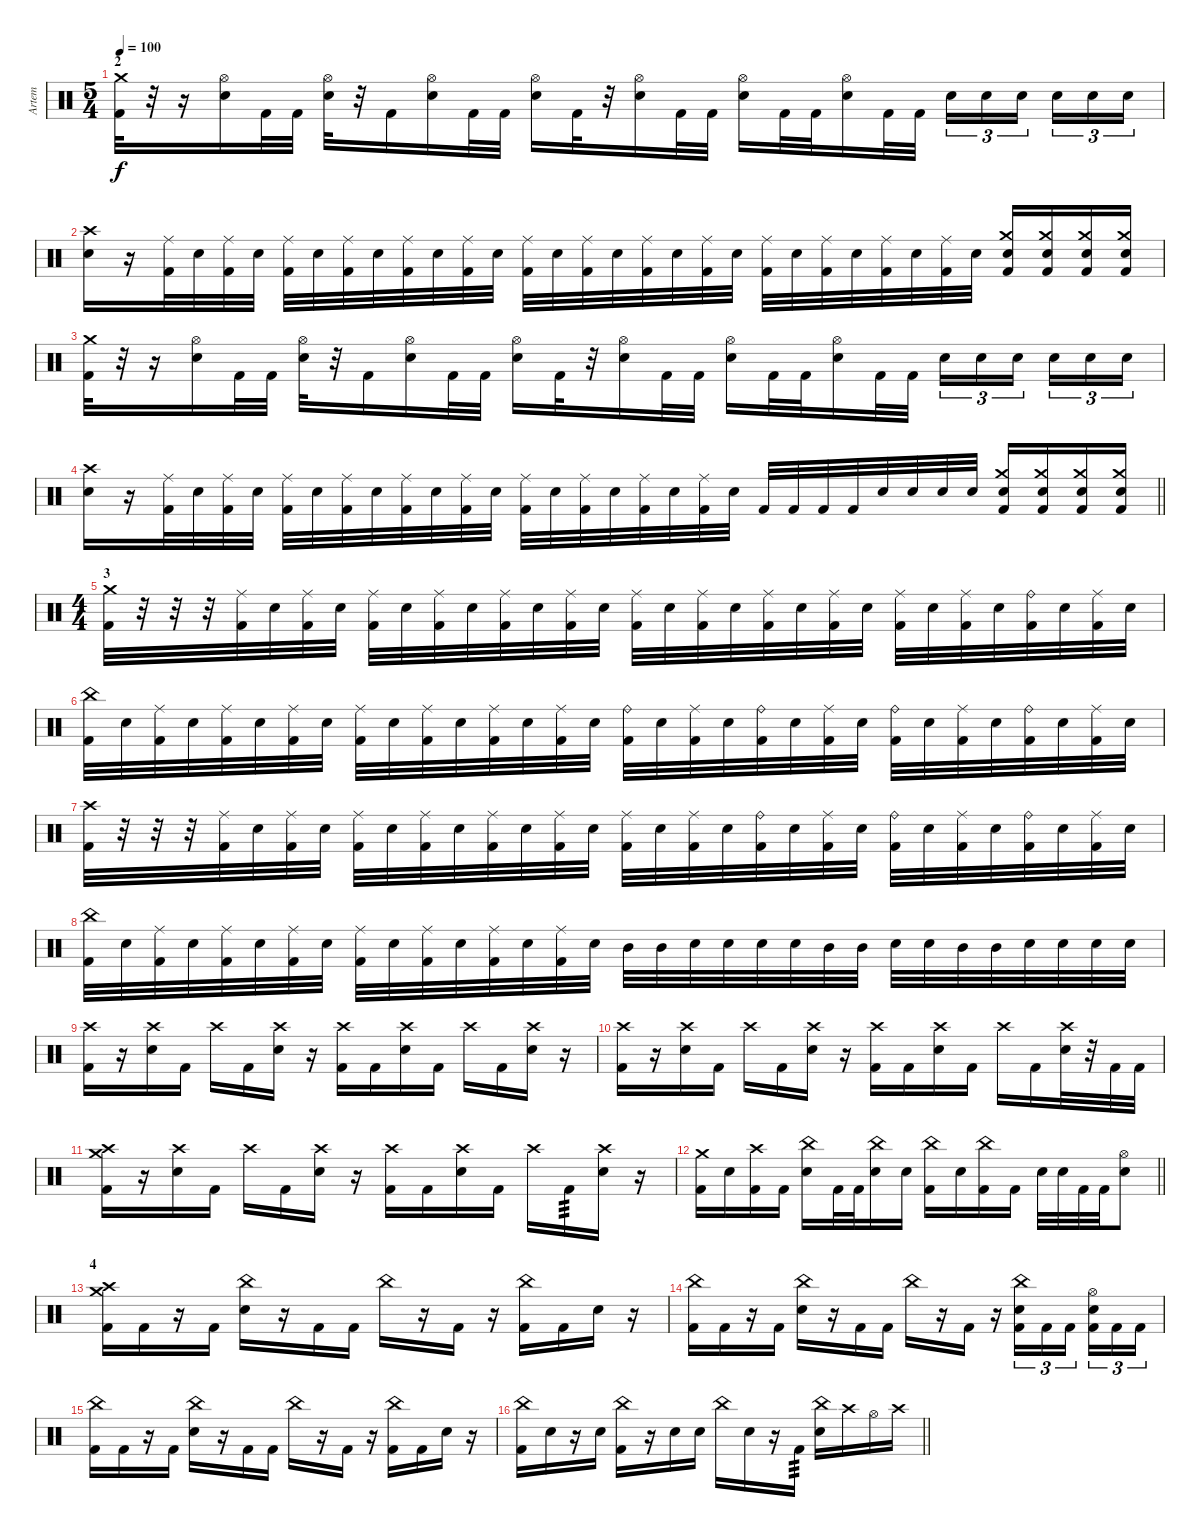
\track ("Artem" "Artem") {instrument percussion}
\staff {score}
\articulation defaults
\ts (5 4)
\section ("" "2")
\tempo 100
\clef neutral
\ks c
("Kick (hit) 2" "Crash medium (hit)").32{dy f} r.32 r.16 ("Electric Snare (hit)" "Hi-Hat (open)").16 "Kick (hit) 2".32 "Kick (hit) 2".32 ("Electric Snare (hit)" "Hi-Hat (open)").32 r.32 "Kick (hit) 2".16 ("Electric Snare (hit)" "Hi-Hat (open)").16 "Kick (hit) 2".32 "Kick (hit) 2".32 ("Electric Snare (hit)" "Hi-Hat (open)").16 "Kick (hit) 2".32 r.32 ("Electric Snare (hit)" "Hi-Hat (open)").16 "Kick (hit) 2".32 "Kick (hit) 2".32 ("Electric Snare (hit)" "Hi-Hat (open)").16 "Kick (hit) 2".32 "Kick (hit) 2".32 ("Electric Snare (hit)" "Hi-Hat (open)").16 "Kick (hit) 2".32 "Kick (hit) 2".32 "Snare (hit) 2".16{tu (3 2)} "Snare (hit) 2".16{tu (3 2)} "Snare (hit) 2".16{tu (3 2) beam splitsecondary} "Snare (hit) 2".16{tu (3 2)} "Snare (hit) 2".16{tu (3 2)} "Snare (hit) 2".16{tu (3 2)} |
("Electric Snare (hit)" "Crash high (hit)").16 r.16 ("Ride (middle)" "Kick (hit) 2").32 "Electric Snare (hit)".32 ("Ride (middle)" "Kick (hit) 2").32 "Electric Snare (hit)".32 ("Ride (middle)" "Kick (hit) 2").32 "Electric Snare (hit)".32 ("Ride (middle)" "Kick (hit) 2").32 "Electric Snare (hit)".32 ("Ride (middle)" "Kick (hit) 2").32 "Electric Snare (hit)".32 ("Ride (middle)" "Kick (hit) 2").32 "Electric Snare (hit)".32 ("Ride (middle)" "Kick (hit) 2").32 "Electric Snare (hit)".32 ("Ride (middle)" "Kick (hit) 2").32 "Electric Snare (hit)".32 ("Ride (middle)" "Kick (hit) 2").32 "Electric Snare (hit)".32 ("Ride (middle)" "Kick (hit) 2").32 "Electric Snare (hit)".32 ("Ride (middle)" "Kick (hit) 2").32 "Electric Snare (hit)".32 ("Ride (middle)" "Kick (hit) 2").32 "Electric Snare (hit)".32 ("Ride (middle)" "Kick (hit) 2").32 "Electric Snare (hit)".32 ("Ride (middle)" "Kick (hit) 2").32 "Electric Snare (hit)".32 ("Crash medium (hit)" "Electric Snare (hit)" "Kick (hit) 2").16 ("Crash medium (hit)" "Electric Snare (hit)" "Kick (hit) 2").16 ("Crash medium (hit)" "Electric Snare (hit)" "Kick (hit) 2").16 ("Crash medium (hit)" "Electric Snare (hit)" "Kick (hit) 2").16 |
("Kick (hit) 2" "Crash medium (hit)").32 r.32 r.16 ("Electric Snare (hit)" "Hi-Hat (open)").16 "Kick (hit) 2".32 "Kick (hit) 2".32 ("Electric Snare (hit)" "Hi-Hat (open)").32 r.32 "Kick (hit) 2".16 ("Electric Snare (hit)" "Hi-Hat (open)").16 "Kick (hit) 2".32 "Kick (hit) 2".32 ("Electric Snare (hit)" "Hi-Hat (open)").16 "Kick (hit) 2".32 r.32 ("Electric Snare (hit)" "Hi-Hat (open)").16 "Kick (hit) 2".32 "Kick (hit) 2".32 ("Electric Snare (hit)" "Hi-Hat (open)").16 "Kick (hit) 2".32 "Kick (hit) 2".32 ("Electric Snare (hit)" "Hi-Hat (open)").16 "Kick (hit) 2".32 "Kick (hit) 2".32 "Snare (hit) 2".16{tu (3 2)} "Snare (hit) 2".16{tu (3 2)} "Snare (hit) 2".16{tu (3 2) beam splitsecondary} "Snare (hit) 2".16{tu (3 2)} "Snare (hit) 2".16{tu (3 2)} "Snare (hit) 2".16{tu (3 2)} |
\barLineRight lightlight
("Electric Snare (hit)" "Crash high (hit)").16 r.16 ("Ride (middle)" "Kick (hit) 2").32 "Electric Snare (hit)".32 ("Ride (middle)" "Kick (hit) 2").32 "Electric Snare (hit)".32 ("Ride (middle)" "Kick (hit) 2").32 "Electric Snare (hit)".32 ("Ride (middle)" "Kick (hit) 2").32 "Electric Snare (hit)".32 ("Ride (middle)" "Kick (hit) 2").32 "Electric Snare (hit)".32 ("Ride (middle)" "Kick (hit) 2").32 "Electric Snare (hit)".32 ("Ride (middle)" "Kick (hit) 2").32 "Electric Snare (hit)".32 ("Ride (middle)" "Kick (hit) 2").32 "Electric Snare (hit)".32 ("Ride (middle)" "Kick (hit) 2").32 "Electric Snare (hit)".32 ("Ride (middle)" "Kick (hit) 2").32 "Electric Snare (hit)".32 "Kick (hit) 2".32 "Kick (hit) 2".32 "Kick (hit) 2".32 "Kick (hit) 2".32 "Electric Snare (hit)".32 "Electric Snare (hit)".32 "Electric Snare (hit)".32 "Electric Snare (hit)".32 ("Crash medium (hit)" "Electric Snare (hit)" "Kick (hit) 2").16 ("Crash medium (hit)" "Electric Snare (hit)" "Kick (hit) 2").16 ("Crash medium (hit)" "Electric Snare (hit)" "Kick (hit) 2").16 ("Crash medium (hit)" "Electric Snare (hit)" "Kick (hit) 2").16 |
\ts (4 4)
\section ("" "3")
("Crash medium (hit)" "Kick (hit) 2").32 r.32 r.32 r.32 ("Ride (middle)" "Kick (hit) 2").32 "Snare (hit) 2".32 ("Ride (middle)" "Kick (hit) 2").32 "Snare (hit) 2".32 ("Ride (middle)" "Kick (hit) 2").32 "Snare (hit) 2".32 ("Ride (middle)" "Kick (hit) 2").32 "Snare (hit) 2".32 ("Ride (middle)" "Kick (hit) 2").32 "Snare (hit) 2".32 ("Ride (middle)" "Kick (hit) 2").32 "Snare (hit) 2".32 ("Ride (middle)" "Kick (hit) 2").32 "Snare (hit) 2".32 ("Ride (middle)" "Kick (hit) 2").32 "Snare (hit) 2".32 ("Ride (middle)" "Kick (hit) 2").32 "Snare (hit) 2".32 ("Ride (middle)" "Kick (hit) 2").32 "Snare (hit) 2".32 ("Ride (middle)" "Kick (hit) 2").32 "Snare (hit) 2".32 ("Ride (middle)" "Kick (hit) 2").32 "Snare (hit) 2".32 ("Ride (bell)" "Kick (hit) 2").32 "Snare (hit) 2".32 ("Ride (middle)" "Kick (hit) 2").32 "Snare (hit) 2".32 |
("China (hit)" "Kick (hit) 2").32 "Snare (hit) 2".32 ("Ride (middle)" "Kick (hit) 2").32 "Snare (hit) 2".32 ("Ride (middle)" "Kick (hit) 2").32 "Snare (hit) 2".32 ("Ride (middle)" "Kick (hit) 2").32 "Snare (hit) 2".32 ("Ride (middle)" "Kick (hit) 2").32 "Snare (hit) 2".32 ("Ride (middle)" "Kick (hit) 2").32 "Snare (hit) 2".32 ("Ride (middle)" "Kick (hit) 2").32 "Snare (hit) 2".32 ("Ride (middle)" "Kick (hit) 2").32 "Snare (hit) 2".32 ("Ride (bell)" "Kick (hit) 2").32 "Snare (hit) 2".32 ("Ride (middle)" "Kick (hit) 2").32 "Snare (hit) 2".32 ("Ride (bell)" "Kick (hit) 2").32 "Snare (hit) 2".32 ("Ride (middle)" "Kick (hit) 2").32 "Snare (hit) 2".32 ("Ride (bell)" "Kick (hit) 2").32 "Snare (hit) 2".32 ("Ride (middle)" "Kick (hit) 2").32 "Snare (hit) 2".32 ("Ride (bell)" "Kick (hit) 2").32 "Snare (hit) 2".32 ("Ride (middle)" "Kick (hit) 2").32 "Snare (hit) 2".32 |
("Crash high (hit)" "Kick (hit) 2").32 r.32 r.32 r.32 ("Ride (middle)" "Kick (hit) 2").32 "Snare (hit) 2".32 ("Ride (middle)" "Kick (hit) 2").32 "Snare (hit) 2".32 ("Ride (middle)" "Kick (hit) 2").32 "Snare (hit) 2".32 ("Ride (middle)" "Kick (hit) 2").32 "Snare (hit) 2".32 ("Ride (middle)" "Kick (hit) 2").32 "Snare (hit) 2".32 ("Ride (middle)" "Kick (hit) 2").32 "Snare (hit) 2".32 ("Ride (middle)" "Kick (hit) 2").32 "Snare (hit) 2".32 ("Ride (middle)" "Kick (hit) 2").32 "Snare (hit) 2".32 ("Ride (bell)" "Kick (hit) 2").32 "Snare (hit) 2".32 ("Ride (middle)" "Kick (hit) 2").32 "Snare (hit) 2".32 ("Ride (bell)" "Kick (hit) 2").32 "Snare (hit) 2".32 ("Ride (middle)" "Kick (hit) 2").32 "Snare (hit) 2".32 ("Ride (bell)" "Kick (hit) 2").32 "Snare (hit) 2".32 ("Ride (middle)" "Kick (hit) 2").32 "Snare (hit) 2".32 |
("China (hit)" "Kick (hit) 2").32 "Snare (hit) 2".32 ("Ride (middle)" "Kick (hit) 2").32 "Snare (hit) 2".32 ("Ride (middle)" "Kick (hit) 2").32 "Snare (hit) 2".32 ("Ride (middle)" "Kick (hit) 2").32 "Snare (hit) 2".32 ("Ride (middle)" "Kick (hit) 2").32 "Snare (hit) 2".32 ("Ride (middle)" "Kick (hit) 2").32 "Snare (hit) 2".32 ("Ride (middle)" "Kick (hit) 2").32 "Snare (hit) 2".32 ("Ride (middle)" "Kick (hit) 2").32 "Snare (hit) 2".32 "Mid Tom (hit)".32 "Mid Tom (hit)".32 "Snare (hit) 2".32 "Snare (hit) 2".32 "Snare (hit) 2".32 "Snare (hit) 2".32 "Mid Tom (hit)".32 "Mid Tom (hit)".32 "Snare (hit) 2".32 "Snare (hit) 2".32 "Mid Tom (hit)".32 "Mid Tom (hit)".32 "Snare (hit) 2".32 "Snare (hit) 2".32 "Snare (hit) 2".32 "Snare (hit) 2".32 |
("Crash high (hit)" "Kick (hit) 2").16 r.16 ("Crash high (hit)" "Snare (hit) 2").16 "Kick (hit) 2".16 "Crash high (hit)".16 "Kick (hit) 2".16 ("Crash high (hit)" "Snare (hit) 2").16 r.16 ("Crash high (hit)" "Kick (hit) 2").16 "Kick (hit) 2".16 ("Crash high (hit)" "Snare (hit) 2").16 "Kick (hit) 2".16 "Crash high (hit)".16 "Kick (hit) 2".16 ("Crash high (hit)" "Snare (hit) 2").16 r.16 |
("Crash high (hit)" "Kick (hit) 2").16 r.16 ("Crash high (hit)" "Snare (hit) 2").16 "Kick (hit) 2".16 "Crash high (hit)".16 "Kick (hit) 2".16 ("Crash high (hit)" "Snare (hit) 2").16 r.16 ("Crash high (hit)" "Kick (hit) 2").16 "Kick (hit) 2".16 ("Crash high (hit)" "Snare (hit) 2").16 "Kick (hit) 2".16 "Crash high (hit)".16 "Kick (hit) 2".16 ("Crash high (hit)" "Snare (hit) 2").32 r.32 "Kick (hit) 2".32 "Kick (hit) 2".32 |
("Crash high (hit)" "Crash medium (hit)" "Kick (hit) 2").16 r.16 ("Crash high (hit)" "Snare (hit) 2").16 "Kick (hit) 2".16 "Crash high (hit)".16 "Kick (hit) 2".16 ("Crash high (hit)" "Snare (hit) 2").16 r.16 ("Crash high (hit)" "Kick (hit) 2").16 "Kick (hit) 2".16 ("Crash high (hit)" "Snare (hit) 2").16 "Kick (hit) 2".16 "Crash high (hit)".16 "Kick (hit) 2".16{tp 3} ("Crash high (hit)" "Snare (hit) 2").16 r.16 |
\barLineRight lightlight
("Crash medium (hit)" "Kick (hit) 2").16 "Snare (hit) 2".16 ("Crash high (hit)" "Kick (hit) 2").16 "Kick (hit) 2".16 ("China (hit)" "Snare (hit) 2").16 "Kick (hit) 2".32 "Kick (hit) 2".32 ("China (hit)" "Snare (hit) 2").16 "Snare (hit) 2".16 ("China (hit)" "Kick (hit) 2").16 "Snare (hit) 2".16 ("China (hit)" "Kick (hit) 2").16 "Kick (hit) 2".16 "Snare (hit) 2".32 "Snare (hit) 2".32 "Kick (hit) 2".32 "Kick (hit) 2".32 ("Hi-Hat (open)" "Snare (hit) 2").8 |
\section ("" "4")
("Crash high (hit)" "Crash medium (hit)" "Kick (hit) 2").16 "Kick (hit) 2".16 r.16 "Kick (hit) 2".16 ("China (hit)" "Electric Snare (hit)").16 r.16 "Kick (hit) 2".16 "Kick (hit) 2".16 "China (hit)".16 r.16 "Kick (hit) 2".16 r.16 ("China (hit)" "Kick (hit) 2").16 "Kick (hit) 2".16 "Electric Snare (hit)".16 r.16 |
("China (hit)" "Kick (hit) 2").16 "Kick (hit) 2".16 r.16 "Kick (hit) 2".16 ("China (hit)" "Electric Snare (hit)").16 r.16 "Kick (hit) 2".16 "Kick (hit) 2".16 "China (hit)".16 r.16 "Kick (hit) 2".16 r.16 ("China (hit)" "Electric Snare (hit)" "Kick (hit) 2").16{tu (3 2)} "Kick (hit) 2".16{tu (3 2)} "Kick (hit) 2".16{tu (3 2) beam splitsecondary} ("Electric Snare (hit)" "Hi-Hat (open)" "Kick (hit) 2").16{tu (3 2)} "Kick (hit) 2".16{tu (3 2)} "Kick (hit) 2".16{tu (3 2)} |
("China (hit)" "Kick (hit) 2").16 "Kick (hit) 2".16 r.16 "Kick (hit) 2".16 ("China (hit)" "Electric Snare (hit)").16 r.16 "Kick (hit) 2".16 "Kick (hit) 2".16 "China (hit)".16 r.16 "Kick (hit) 2".16 r.16 ("China (hit)" "Kick (hit) 2").16 "Kick (hit) 2".16 "Electric Snare (hit)".16 r.16 |
\barLineRight lightlight
("China (hit)" "Kick (hit) 2").16 "Electric Snare (hit)".16 r.16 "Electric Snare (hit)".16 ("China (hit)" "Kick (hit) 2").16 r.16 "Electric Snare (hit)".16 "Electric Snare (hit)".16 "China (hit)".16 "Electric Snare (hit)".16 r.16 "Kick (hit) 2".16{tp 3} ("China (hit)" "Electric Snare (hit)").16 "Crash high (hit)".16 "Hi-Hat (open)".16 "Crash high (hit)".16
